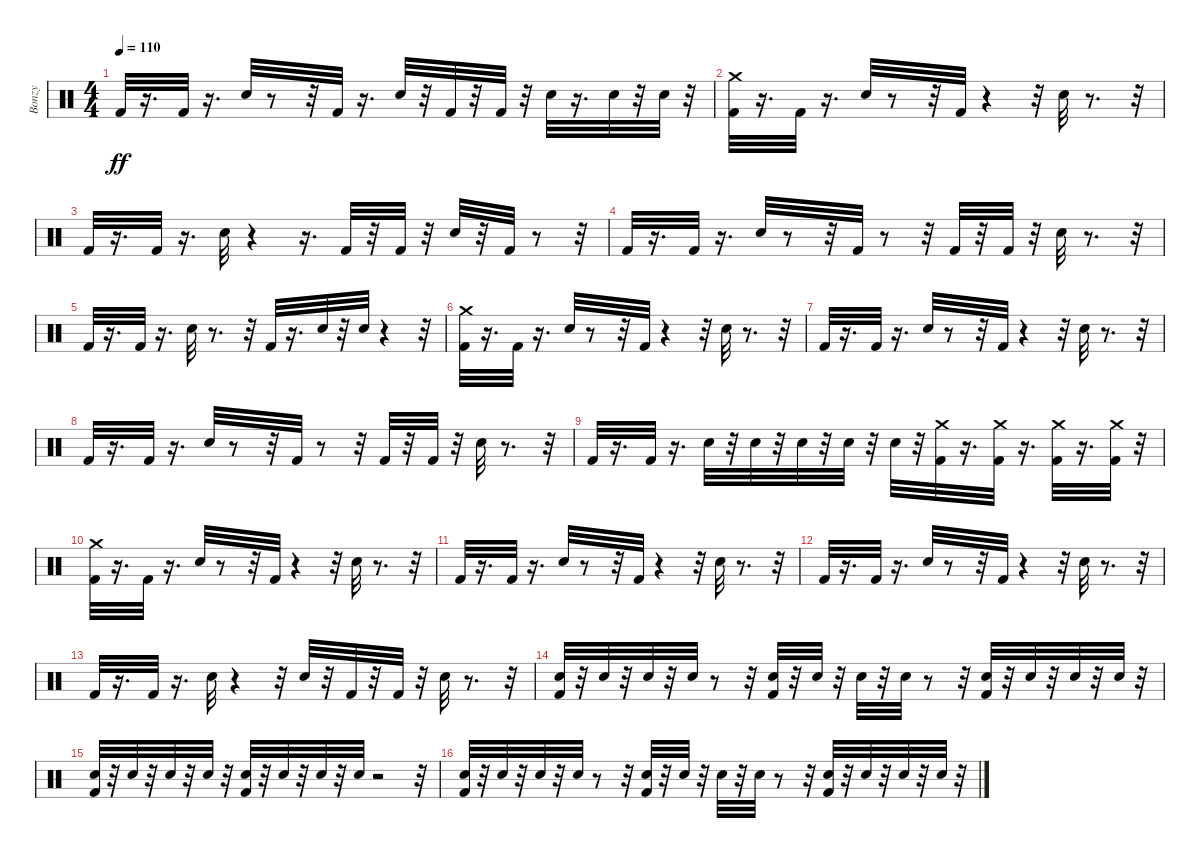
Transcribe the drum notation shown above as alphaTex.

\track ("Bonzy" "Bonzy") {instrument percussion}
\staff {score}
\articulation defaults
\ts (4 4)
\tempo 110
\clef neutral
\ks c "Kick (hit) 2".32{dy ff}
r.16{d} "Kick (hit) 2".32 r.16{d} "Electric Snare (hit)".32 r.8 r.32 "Kick (hit) 2".32 r.16{d} "Electric Snare (hit)".32 r.32 "Kick (hit) 2".32 r.32 "Kick (hit) 2".32 r.32 "Electric Snare (hit)".32 r.16{d} "Electric Snare (hit)".32 r.32 "Electric Snare (hit)".32 r.32 |
("Kick (hit) 2" "Crash medium (hit)").32 r.16{d} "Kick (hit) 2".32 r.16{d} "Electric Snare (hit)".32 r.8 r.32 "Kick (hit) 2".32 r.4 r.32 "Electric Snare (hit)".32 r.8{d} r.32 |
"Kick (hit) 2".32 r.16{d} "Kick (hit) 2".32 r.16{d} "Electric Snare (hit)".32 r.4 r.16{d} "Kick (hit) 2".32 r.32 "Kick (hit) 2".32 r.32 "Electric Snare (hit)".32 r.32 "Kick (hit) 2".32 r.8 r.32 |
"Kick (hit) 2".32 r.16{d} "Kick (hit) 2".32 r.16{d} "Electric Snare (hit)".32 r.8 r.32 "Kick (hit) 2".32 r.8 r.32 "Kick (hit) 2".32 r.32 "Kick (hit) 2".32 r.32 "Electric Snare (hit)".32 r.8{d} r.32 |
"Kick (hit) 2".32 r.16{d} "Kick (hit) 2".32 r.16{d} "Electric Snare (hit)".32 r.8{d} r.32 "Kick (hit) 2".32 r.16{d} "Electric Snare (hit)".32 r.32 "Electric Snare (hit)".32 r.4 r.32 |
("Kick (hit) 2" "Crash medium (hit)").32 r.16{d} "Kick (hit) 2".32 r.16{d} "Electric Snare (hit)".32 r.8 r.32 "Kick (hit) 2".32 r.4 r.32 "Electric Snare (hit)".32 r.8{d} r.32 |
"Kick (hit) 2".32 r.16{d} "Kick (hit) 2".32 r.16{d} "Electric Snare (hit)".32 r.8 r.32 "Kick (hit) 2".32 r.4 r.32 "Electric Snare (hit)".32 r.8{d} r.32 |
"Kick (hit) 2".32 r.16{d} "Kick (hit) 2".32 r.16{d} "Electric Snare (hit)".32 r.8 r.32 "Kick (hit) 2".32 r.8 r.32 "Kick (hit) 2".32 r.32 "Kick (hit) 2".32 r.32 "Electric Snare (hit)".32 r.8{d} r.32 |
"Kick (hit) 2".32 r.16{d} "Kick (hit) 2".32 r.16{d} "Electric Snare (hit)".32 r.32 "Electric Snare (hit)".32 r.32 "Electric Snare (hit)".32 r.32 "Electric Snare (hit)".32 r.32 "Electric Snare (hit)".32 r.32 ("Crash medium (hit)" "Kick (hit) 2").32 r.16{d} ("Crash medium (hit)" "Kick (hit) 2").32 r.16{d} ("Kick (hit) 2" "Crash medium (hit)").32 r.16{d} ("Crash medium (hit)" "Kick (hit) 2").32 r.32 |
("Crash medium (hit)" "Kick (hit) 2").32 r.16{d} "Kick (hit) 2".32 r.16{d} "Electric Snare (hit)".32 r.8 r.32 "Kick (hit) 2".32 r.4 r.32 "Electric Snare (hit)".32 r.8{d} r.32 |
"Kick (hit) 2".32 r.16{d} "Kick (hit) 2".32 r.16{d} "Electric Snare (hit)".32 r.8 r.32 "Kick (hit) 2".32 r.4 r.32 "Electric Snare (hit)".32 r.8{d} r.32 |
"Kick (hit) 2".32 r.16{d} "Kick (hit) 2".32 r.16{d} "Electric Snare (hit)".32 r.8 r.32 "Kick (hit) 2".32 r.4 r.32 "Electric Snare (hit)".32 r.8{d} r.32 |
"Kick (hit) 2".32 r.16{d} "Kick (hit) 2".32 r.16{d} "Electric Snare (hit)".32 r.4 r.32 "Electric Snare (hit)".32 r.32 "Kick (hit) 2".32 r.32 "Kick (hit) 2".32 r.32 "Electric Snare (hit)".32 r.8{d} r.32 |
("Kick (hit) 2" "Electric Snare (hit)").32 r.32 "Electric Snare (hit)".32 r.32 "Electric Snare (hit)".32 r.32 "Electric Snare (hit)".32 r.8 r.32 ("Electric Snare (hit)" "Kick (hit) 2").32 r.32 "Electric Snare (hit)".32 r.32 "Electric Snare (hit)".32 r.32 "Electric Snare (hit)".32 r.8 r.32 ("Electric Snare (hit)" "Kick (hit) 2").32 r.32 "Electric Snare (hit)".32 r.32 "Electric Snare (hit)".32 r.32 "Electric Snare (hit)".32 r.32 |
("Electric Snare (hit)" "Kick (hit) 2").32 r.32 "Electric Snare (hit)".32 r.32 "Electric Snare (hit)".32 r.32 "Electric Snare (hit)".32 r.32 ("Kick (hit) 2" "Electric Snare (hit)").32 r.32 "Electric Snare (hit)".32 r.32 "Electric Snare (hit)".32 r.32 "Electric Snare (hit)".32 r.2 r.32 |
("Kick (hit) 2" "Electric Snare (hit)").32 r.32 "Electric Snare (hit)".32 r.32 "Electric Snare (hit)".32 r.32 "Electric Snare (hit)".32 r.8 r.32 ("Kick (hit) 2" "Electric Snare (hit)").32 r.32 "Electric Snare (hit)".32 r.32 "Electric Snare (hit)".32 r.32 "Electric Snare (hit)".32 r.8 r.32 ("Electric Snare (hit)" "Kick (hit) 2").32 r.32 "Electric Snare (hit)".32 r.32 "Electric Snare (hit)".32 r.32 "Electric Snare (hit)".32 r.32
